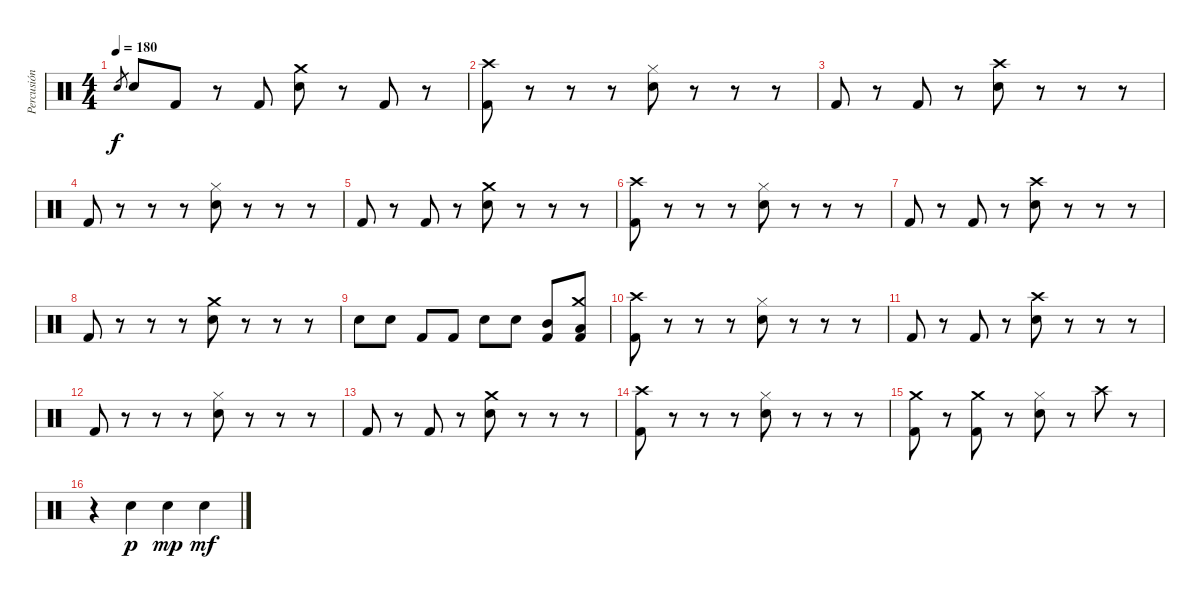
\track ("Percusión" "Percusión") {instrument percussion}
\staff {score}
\articulation defaults
\ts (4 4)
\tempo 180
\clef neutral
\ks c "Snare (hit) 2".8{gr dy f} "Snare (hit) 2".8 "Kick (hit) 2".8
r.8 "Kick (hit) 2".8 ("Crash medium (hit)" "Snare (hit) 2").8 r.8 "Kick (hit) 2".8 r.8 |
("Crash high (hit)" "Kick (hit) 2").8 r.8 r.8 r.8 ("Hi-Hat (closed)" "Snare (hit) 2").8 r.8 r.8 r.8 |
"Kick (hit) 2".8 r.8 "Kick (hit) 2".8 r.8 ("Crash high (hit)" "Snare (hit) 2").8 r.8 r.8 r.8 |
"Kick (hit) 2".8 r.8 r.8 r.8 ("Hi-Hat (closed)" "Snare (hit) 2").8 r.8 r.8 r.8 |
"Kick (hit) 2".8 r.8 "Kick (hit) 2".8 r.8 ("Crash medium (hit)" "Snare (hit) 2").8 r.8 r.8 r.8 |
("Crash high (hit)" "Kick (hit) 2").8 r.8 r.8 r.8 ("Hi-Hat (closed)" "Snare (hit) 2").8 r.8 r.8 r.8 |
"Kick (hit) 2".8 r.8 "Kick (hit) 2".8 r.8 ("Crash high (hit)" "Snare (hit) 2").8 r.8 r.8 r.8 |
"Kick (hit) 2".8 r.8 r.8 r.8 ("Crash medium (hit)" "Snare (hit) 2").8 r.8 r.8 r.8 |
"Snare (hit) 2".8 "Snare (hit) 2".8 "Kick (hit) 2".8 "Kick (hit) 2".8 "Snare (hit) 2".8 "Snare (hit) 2".8 ("Mid Tom (hit)" "Kick (hit) 2").8 ("Crash medium (hit)" "Low Tom (hit)" "Kick (hit) 2").8 |
("Crash high (hit)" "Kick (hit) 2").8 r.8 r.8 r.8 ("Hi-Hat (closed)" "Snare (hit) 2").8 r.8 r.8 r.8 |
"Kick (hit) 2".8 r.8 "Kick (hit) 2".8 r.8 ("Crash high (hit)" "Snare (hit) 2").8 r.8 r.8 r.8 |
"Kick (hit) 2".8 r.8 r.8 r.8 ("Hi-Hat (closed)" "Snare (hit) 2").8 r.8 r.8 r.8 |
"Kick (hit) 2".8 r.8 "Kick (hit) 2".8 r.8 ("Crash medium (hit)" "Snare (hit) 2").8 r.8 r.8 r.8 |
("Crash high (hit)" "Kick (hit) 2").8 r.8 r.8 r.8 ("Hi-Hat (closed)" "Snare (hit) 2").8 r.8 r.8 r.8 |
("Crash medium (hit)" "Kick (hit) 2").8 r.8 ("Crash medium (hit)" "Kick (hit) 2").8 r.8 ("Hi-Hat (closed)" "Snare (hit) 2").8 r.8 "Crash high (hit)".8 r.8 |
r.4 "Snare (hit) 2".4{dy p} "Snare (hit) 2".4{dy mp} "Snare (hit) 2".4{dy mf}
